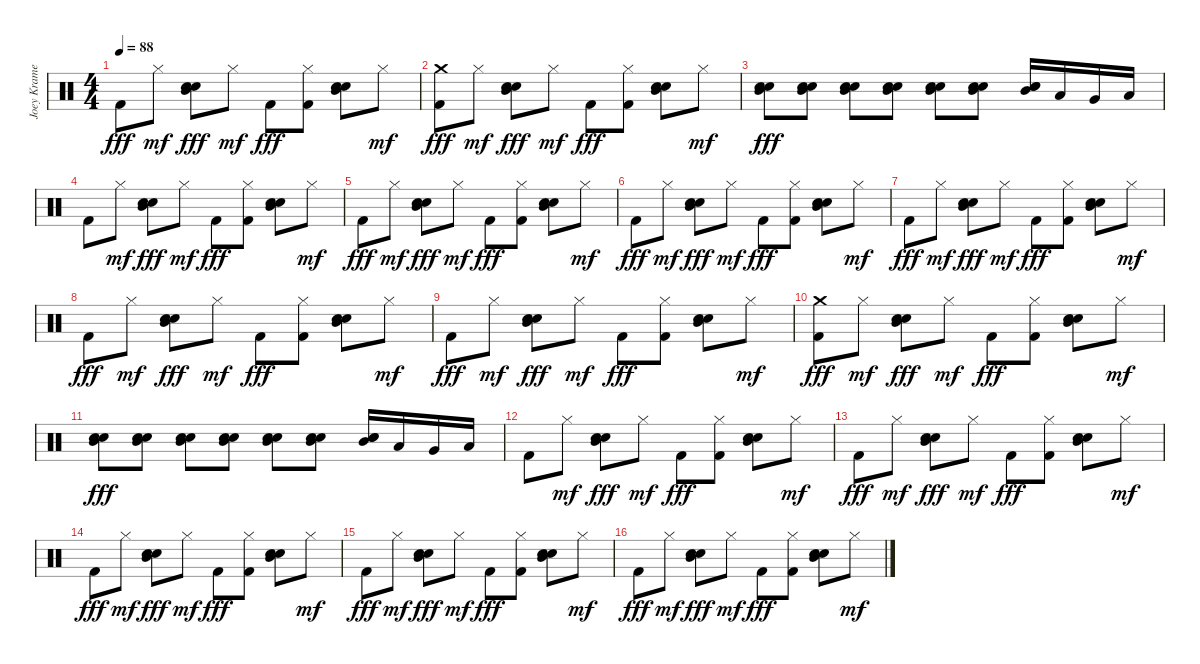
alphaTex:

\track ("Joey Kramer" "Joey Krame") {instrument percussion}
\staff {score}
\articulation defaults
\ts (4 4)
\tempo 88
\clef neutral
\ks c "Kick (hit) 2".8{dy fff} "Hi-Hat (closed)".8{dy mf}
("Snare (hit) 2" "Electric Snare (hit)" "Mid Tom (hit)").8{dy fff} "Hi-Hat (closed)".8{dy mf} "Kick (hit) 2".8{dy fff} ("Hi-Hat (closed)" "Kick (hit) 2").8 ("Snare (hit) 2" "Electric Snare (hit)" "Mid Tom (hit)").8 "Hi-Hat (closed)".8{dy mf} |
("Crash medium (hit)" "Kick (hit) 2").8{dy fff} "Hi-Hat (closed)".8{dy mf} ("Snare (hit) 2" "Electric Snare (hit)" "Mid Tom (hit)").8{dy fff} "Hi-Hat (closed)".8{dy mf} "Kick (hit) 2".8{dy fff} ("Hi-Hat (closed)" "Kick (hit) 2").8 ("Snare (hit) 2" "Electric Snare (hit)" "Mid Tom (hit)").8 "Hi-Hat (closed)".8{dy mf} |
("Snare (hit) 2" "Electric Snare (hit)" "Mid Tom (hit)").8{dy fff} ("Snare (hit) 2" "Electric Snare (hit)" "Mid Tom (hit)").8 ("Snare (hit) 2" "Electric Snare (hit)" "Mid Tom (hit)").8 ("Snare (hit) 2" "Electric Snare (hit)" "Mid Tom (hit)").8 ("Snare (hit) 2" "Electric Snare (hit)" "Mid Tom (hit)").8 ("Snare (hit) 2" "Electric Snare (hit)" "Mid Tom (hit)").8 ("Snare (hit) 2" "Electric Snare (hit)" "Mid Tom (hit)").16 "Low Tom (hit)".16 "Very Low Tom (hit)".16 "Low Floor Tom (hit)".16 |
"Kick (hit) 2".8 "Hi-Hat (closed)".8{dy mf} ("Snare (hit) 2" "Electric Snare (hit)" "Mid Tom (hit)").8{dy fff} "Hi-Hat (closed)".8{dy mf} "Kick (hit) 2".8{dy fff} ("Hi-Hat (closed)" "Kick (hit) 2").8 ("Snare (hit) 2" "Electric Snare (hit)" "Mid Tom (hit)").8 "Hi-Hat (closed)".8{dy mf} |
"Kick (hit) 2".8{dy fff} "Hi-Hat (closed)".8{dy mf} ("Snare (hit) 2" "Electric Snare (hit)" "Mid Tom (hit)").8{dy fff} "Hi-Hat (closed)".8{dy mf} "Kick (hit) 2".8{dy fff} ("Hi-Hat (closed)" "Kick (hit) 2").8 ("Snare (hit) 2" "Electric Snare (hit)" "Mid Tom (hit)").8 "Hi-Hat (closed)".8{dy mf} |
"Kick (hit) 2".8{dy fff} "Hi-Hat (closed)".8{dy mf} ("Snare (hit) 2" "Electric Snare (hit)" "Mid Tom (hit)").8{dy fff} "Hi-Hat (closed)".8{dy mf} "Kick (hit) 2".8{dy fff} ("Hi-Hat (closed)" "Kick (hit) 2").8 ("Snare (hit) 2" "Electric Snare (hit)" "Mid Tom (hit)").8 "Hi-Hat (closed)".8{dy mf} |
"Kick (hit) 2".8{dy fff} "Hi-Hat (closed)".8{dy mf} ("Snare (hit) 2" "Electric Snare (hit)" "Mid Tom (hit)").8{dy fff} "Hi-Hat (closed)".8{dy mf} "Kick (hit) 2".8{dy fff} ("Hi-Hat (closed)" "Kick (hit) 2").8 ("Snare (hit) 2" "Electric Snare (hit)" "Mid Tom (hit)").8 "Hi-Hat (closed)".8{dy mf} |
"Kick (hit) 2".8{dy fff} "Hi-Hat (closed)".8{dy mf} ("Snare (hit) 2" "Electric Snare (hit)" "Mid Tom (hit)").8{dy fff} "Hi-Hat (closed)".8{dy mf} "Kick (hit) 2".8{dy fff} ("Hi-Hat (closed)" "Kick (hit) 2").8 ("Snare (hit) 2" "Electric Snare (hit)" "Mid Tom (hit)").8 "Hi-Hat (closed)".8{dy mf} |
"Kick (hit) 2".8{dy fff} "Hi-Hat (closed)".8{dy mf} ("Snare (hit) 2" "Electric Snare (hit)" "Mid Tom (hit)").8{dy fff} "Hi-Hat (closed)".8{dy mf} "Kick (hit) 2".8{dy fff} ("Hi-Hat (closed)" "Kick (hit) 2").8 ("Snare (hit) 2" "Electric Snare (hit)" "Mid Tom (hit)").8 "Hi-Hat (closed)".8{dy mf} |
("Crash medium (hit)" "Kick (hit) 2").8{dy fff} "Hi-Hat (closed)".8{dy mf} ("Snare (hit) 2" "Electric Snare (hit)" "Mid Tom (hit)").8{dy fff} "Hi-Hat (closed)".8{dy mf} "Kick (hit) 2".8{dy fff} ("Hi-Hat (closed)" "Kick (hit) 2").8 ("Snare (hit) 2" "Electric Snare (hit)" "Mid Tom (hit)").8 "Hi-Hat (closed)".8{dy mf} |
("Snare (hit) 2" "Electric Snare (hit)" "Mid Tom (hit)").8{dy fff} ("Snare (hit) 2" "Electric Snare (hit)" "Mid Tom (hit)").8 ("Snare (hit) 2" "Electric Snare (hit)" "Mid Tom (hit)").8 ("Snare (hit) 2" "Electric Snare (hit)" "Mid Tom (hit)").8 ("Snare (hit) 2" "Electric Snare (hit)" "Mid Tom (hit)").8 ("Snare (hit) 2" "Electric Snare (hit)" "Mid Tom (hit)").8 ("Snare (hit) 2" "Electric Snare (hit)" "Mid Tom (hit)").16 "Low Tom (hit)".16 "Very Low Tom (hit)".16 "Low Floor Tom (hit)".16 |
"Kick (hit) 2".8 "Hi-Hat (closed)".8{dy mf} ("Snare (hit) 2" "Electric Snare (hit)" "Mid Tom (hit)").8{dy fff} "Hi-Hat (closed)".8{dy mf} "Kick (hit) 2".8{dy fff} ("Hi-Hat (closed)" "Kick (hit) 2").8 ("Snare (hit) 2" "Electric Snare (hit)" "Mid Tom (hit)").8 "Hi-Hat (closed)".8{dy mf} |
"Kick (hit) 2".8{dy fff} "Hi-Hat (closed)".8{dy mf} ("Snare (hit) 2" "Electric Snare (hit)" "Mid Tom (hit)").8{dy fff} "Hi-Hat (closed)".8{dy mf} "Kick (hit) 2".8{dy fff} ("Hi-Hat (closed)" "Kick (hit) 2").8 ("Snare (hit) 2" "Electric Snare (hit)" "Mid Tom (hit)").8 "Hi-Hat (closed)".8{dy mf} |
"Kick (hit) 2".8{dy fff} "Hi-Hat (closed)".8{dy mf} ("Snare (hit) 2" "Electric Snare (hit)" "Mid Tom (hit)").8{dy fff} "Hi-Hat (closed)".8{dy mf} "Kick (hit) 2".8{dy fff} ("Hi-Hat (closed)" "Kick (hit) 2").8 ("Snare (hit) 2" "Electric Snare (hit)" "Mid Tom (hit)").8 "Hi-Hat (closed)".8{dy mf} |
"Kick (hit) 2".8{dy fff} "Hi-Hat (closed)".8{dy mf} ("Snare (hit) 2" "Electric Snare (hit)" "Mid Tom (hit)").8{dy fff} "Hi-Hat (closed)".8{dy mf} "Kick (hit) 2".8{dy fff} ("Hi-Hat (closed)" "Kick (hit) 2").8 ("Snare (hit) 2" "Electric Snare (hit)" "Mid Tom (hit)").8 "Hi-Hat (closed)".8{dy mf} |
"Kick (hit) 2".8{dy fff} "Hi-Hat (closed)".8{dy mf} ("Snare (hit) 2" "Electric Snare (hit)" "Mid Tom (hit)").8{dy fff} "Hi-Hat (closed)".8{dy mf} "Kick (hit) 2".8{dy fff} ("Hi-Hat (closed)" "Kick (hit) 2").8 ("Snare (hit) 2" "Electric Snare (hit)" "Mid Tom (hit)").8 "Hi-Hat (closed)".8{dy mf}
